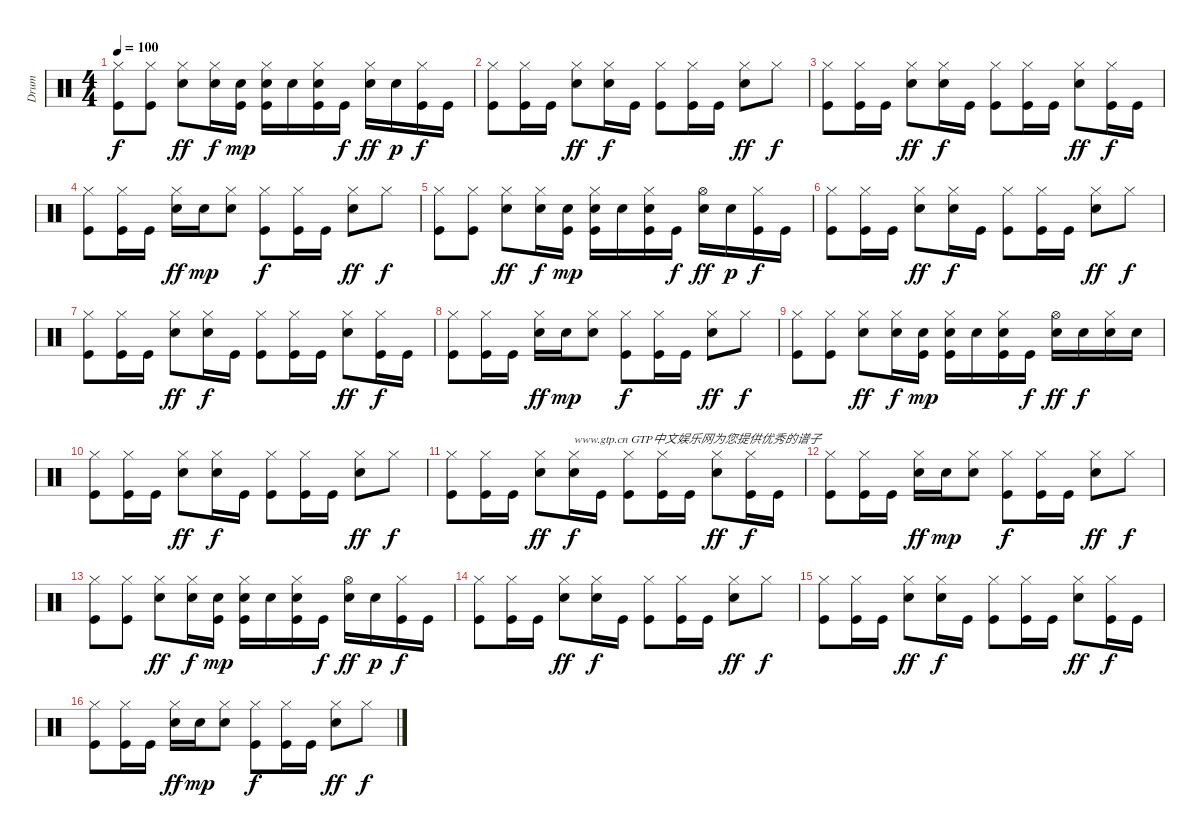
\track ("Drum" "Drum") {instrument percussion}
\staff {score}
\articulation defaults
\ts (4 4)
\tempo 100
\clef neutral
\ks c
("Hi-Hat (closed)" "Kick (hit)").8{dy f} ("Hi-Hat (closed)" "Kick (hit)").8 ("Hi-Hat (closed)" "Snare (hit) 2").8{dy ff} ("Hi-Hat (closed)" "Snare (hit) 2").16{dy f} ("Snare (hit) 2" "Kick (hit)").16{dy mp} ("Hi-Hat (closed)" "Snare (hit) 2" "Kick (hit)").16 "Snare (hit) 2".16 ("Hi-Hat (closed)" "Snare (hit) 2" "Kick (hit)").16 "Kick (hit)".16{dy f} ("Hi-Hat (closed)" "Snare (hit) 2").16{dy ff} "Snare (hit) 2".16{dy p} ("Hi-Hat (closed)" "Kick (hit)").16{dy f} "Kick (hit)".16 |
("Hi-Hat (closed)" "Kick (hit)").8 ("Hi-Hat (closed)" "Kick (hit)").16 "Kick (hit)".16 ("Hi-Hat (closed)" "Snare (hit) 2").8{dy ff} ("Hi-Hat (closed)" "Snare (hit) 2").16{dy f} "Kick (hit)".16 ("Hi-Hat (closed)" "Kick (hit)").8 ("Hi-Hat (closed)" "Kick (hit)").16 "Kick (hit)".16 ("Hi-Hat (closed)" "Snare (hit) 2").8{dy ff} "Hi-Hat (closed)".8{dy f} |
("Hi-Hat (closed)" "Kick (hit)").8 ("Hi-Hat (closed)" "Kick (hit)").16 "Kick (hit)".16 ("Hi-Hat (closed)" "Snare (hit) 2").8{dy ff} ("Hi-Hat (closed)" "Snare (hit) 2").16{dy f} "Kick (hit)".16 ("Hi-Hat (closed)" "Kick (hit)").8 ("Hi-Hat (closed)" "Kick (hit)").16 "Kick (hit)".16 ("Hi-Hat (closed)" "Snare (hit) 2").8{dy ff} ("Hi-Hat (closed)" "Kick (hit)").16{dy f} "Kick (hit)".16 |
("Hi-Hat (closed)" "Kick (hit)").8 ("Hi-Hat (closed)" "Kick (hit)").16 "Kick (hit)".16 ("Hi-Hat (closed)" "Snare (hit) 2").16{dy ff} "Snare (hit) 2".16{dy mp} ("Hi-Hat (closed)" "Snare (hit) 2").8 ("Hi-Hat (closed)" "Kick (hit)").8{dy f} ("Hi-Hat (closed)" "Kick (hit)").16 "Kick (hit)".16 ("Hi-Hat (closed)" "Snare (hit) 2").8{dy ff} "Hi-Hat (closed)".8{dy f} |
("Hi-Hat (closed)" "Kick (hit)").8 ("Hi-Hat (closed)" "Kick (hit)").8 ("Hi-Hat (closed)" "Snare (hit) 2").8{dy ff} ("Hi-Hat (closed)" "Snare (hit) 2").16{dy f} ("Snare (hit) 2" "Kick (hit)").16{dy mp} ("Hi-Hat (closed)" "Snare (hit) 2" "Kick (hit)").16 "Snare (hit) 2".16 ("Hi-Hat (closed)" "Snare (hit) 2" "Kick (hit)").16 "Kick (hit)".16{dy f} ("Hi-Hat (open)" "Snare (hit) 2").16{dy ff} "Snare (hit) 2".16{dy p} ("Hi-Hat (closed)" "Kick (hit)").16{dy f} "Kick (hit)".16 |
("Hi-Hat (closed)" "Kick (hit)").8 ("Hi-Hat (closed)" "Kick (hit)").16 "Kick (hit)".16 ("Hi-Hat (closed)" "Snare (hit) 2").8{dy ff} ("Hi-Hat (closed)" "Snare (hit) 2").16{dy f} "Kick (hit)".16 ("Hi-Hat (closed)" "Kick (hit)").8 ("Hi-Hat (closed)" "Kick (hit)").16 "Kick (hit)".16 ("Hi-Hat (closed)" "Snare (hit) 2").8{dy ff} "Hi-Hat (closed)".8{dy f} |
("Hi-Hat (closed)" "Kick (hit)").8 ("Hi-Hat (closed)" "Kick (hit)").16 "Kick (hit)".16 ("Hi-Hat (closed)" "Snare (hit) 2").8{dy ff} ("Hi-Hat (closed)" "Snare (hit) 2").16{dy f} "Kick (hit)".16 ("Hi-Hat (closed)" "Kick (hit)").8 ("Hi-Hat (closed)" "Kick (hit)").16 "Kick (hit)".16 ("Hi-Hat (closed)" "Snare (hit) 2").8{dy ff} ("Hi-Hat (closed)" "Kick (hit)").16{dy f} "Kick (hit)".16 |
("Hi-Hat (closed)" "Kick (hit)").8 ("Hi-Hat (closed)" "Kick (hit)").16 "Kick (hit)".16 ("Hi-Hat (closed)" "Snare (hit) 2").16{dy ff} "Snare (hit) 2".16{dy mp} ("Hi-Hat (closed)" "Snare (hit) 2").8 ("Hi-Hat (closed)" "Kick (hit)").8{dy f} ("Hi-Hat (closed)" "Kick (hit)").16 "Kick (hit)".16 ("Hi-Hat (closed)" "Snare (hit) 2").8{dy ff} "Hi-Hat (closed)".8{dy f} |
("Hi-Hat (closed)" "Kick (hit)").8 ("Hi-Hat (closed)" "Kick (hit)").8 ("Hi-Hat (closed)" "Snare (hit) 2").8{dy ff} ("Hi-Hat (closed)" "Snare (hit) 2").16{dy f} ("Snare (hit) 2" "Kick (hit)").16{dy mp} ("Hi-Hat (closed)" "Snare (hit) 2" "Kick (hit)").16 "Snare (hit) 2".16 ("Hi-Hat (closed)" "Snare (hit) 2" "Kick (hit)").16 "Kick (hit)".16{dy f} ("Hi-Hat (open)" "Snare (hit) 2").16{dy ff} "Snare (hit) 2".16{dy f} ("Hi-Hat (closed)" "Snare (hit) 2").16 "Snare (hit) 2".16 |
("Hi-Hat (closed)" "Kick (hit)").8 ("Hi-Hat (closed)" "Kick (hit)").16 "Kick (hit)".16 ("Hi-Hat (closed)" "Snare (hit) 2").8{dy ff} ("Hi-Hat (closed)" "Snare (hit) 2").16{dy f} "Kick (hit)".16 ("Hi-Hat (closed)" "Kick (hit)").8 ("Hi-Hat (closed)" "Kick (hit)").16 "Kick (hit)".16 ("Hi-Hat (closed)" "Snare (hit) 2").8{dy ff} "Hi-Hat (closed)".8{dy f} |
("Hi-Hat (closed)" "Kick (hit)").8 ("Hi-Hat (closed)" "Kick (hit)").16 "Kick (hit)".16 ("Hi-Hat (closed)" "Snare (hit) 2").8{dy ff} ("Hi-Hat (closed)" "Snare (hit) 2").16{txt "www.gtp.cn GTP中文娱乐网为您提供优秀的谱子" dy f} "Kick (hit)".16 ("Hi-Hat (closed)" "Kick (hit)").8 ("Hi-Hat (closed)" "Kick (hit)").16 "Kick (hit)".16 ("Hi-Hat (closed)" "Snare (hit) 2").8{dy ff} ("Hi-Hat (closed)" "Kick (hit)").16{dy f} "Kick (hit)".16 |
("Hi-Hat (closed)" "Kick (hit)").8 ("Hi-Hat (closed)" "Kick (hit)").16 "Kick (hit)".16 ("Hi-Hat (closed)" "Snare (hit) 2").16{dy ff} "Snare (hit) 2".16{dy mp} ("Hi-Hat (closed)" "Snare (hit) 2").8 ("Hi-Hat (closed)" "Kick (hit)").8{dy f} ("Hi-Hat (closed)" "Kick (hit)").16 "Kick (hit)".16 ("Hi-Hat (closed)" "Snare (hit) 2").8{dy ff} "Hi-Hat (closed)".8{dy f} |
("Hi-Hat (closed)" "Kick (hit)").8 ("Hi-Hat (closed)" "Kick (hit)").8 ("Hi-Hat (closed)" "Snare (hit) 2").8{dy ff} ("Hi-Hat (closed)" "Snare (hit) 2").16{dy f} ("Snare (hit) 2" "Kick (hit)").16{dy mp} ("Hi-Hat (closed)" "Snare (hit) 2" "Kick (hit)").16 "Snare (hit) 2".16 ("Hi-Hat (closed)" "Snare (hit) 2" "Kick (hit)").16 "Kick (hit)".16{dy f} ("Hi-Hat (open)" "Snare (hit) 2").16{dy ff} "Snare (hit) 2".16{dy p} ("Hi-Hat (closed)" "Kick (hit)").16{dy f} "Kick (hit)".16 |
("Hi-Hat (closed)" "Kick (hit)").8 ("Hi-Hat (closed)" "Kick (hit)").16 "Kick (hit)".16 ("Hi-Hat (closed)" "Snare (hit) 2").8{dy ff} ("Hi-Hat (closed)" "Snare (hit) 2").16{dy f} "Kick (hit)".16 ("Hi-Hat (closed)" "Kick (hit)").8 ("Hi-Hat (closed)" "Kick (hit)").16 "Kick (hit)".16 ("Hi-Hat (closed)" "Snare (hit) 2").8{dy ff} "Hi-Hat (closed)".8{dy f} |
("Hi-Hat (closed)" "Kick (hit)").8 ("Hi-Hat (closed)" "Kick (hit)").16 "Kick (hit)".16 ("Hi-Hat (closed)" "Snare (hit) 2").8{dy ff} ("Hi-Hat (closed)" "Snare (hit) 2").16{dy f} "Kick (hit)".16 ("Hi-Hat (closed)" "Kick (hit)").8 ("Hi-Hat (closed)" "Kick (hit)").16 "Kick (hit)".16 ("Hi-Hat (closed)" "Snare (hit) 2").8{dy ff} ("Hi-Hat (closed)" "Kick (hit)").16{dy f} "Kick (hit)".16 |
("Hi-Hat (closed)" "Kick (hit)").8 ("Hi-Hat (closed)" "Kick (hit)").16 "Kick (hit)".16 ("Hi-Hat (closed)" "Snare (hit) 2").16{dy ff} "Snare (hit) 2".16{dy mp} ("Hi-Hat (closed)" "Snare (hit) 2").8 ("Hi-Hat (closed)" "Kick (hit)").8{dy f} ("Hi-Hat (closed)" "Kick (hit)").16 "Kick (hit)".16 ("Hi-Hat (closed)" "Snare (hit) 2").8{dy ff} "Hi-Hat (closed)".8{dy f}
